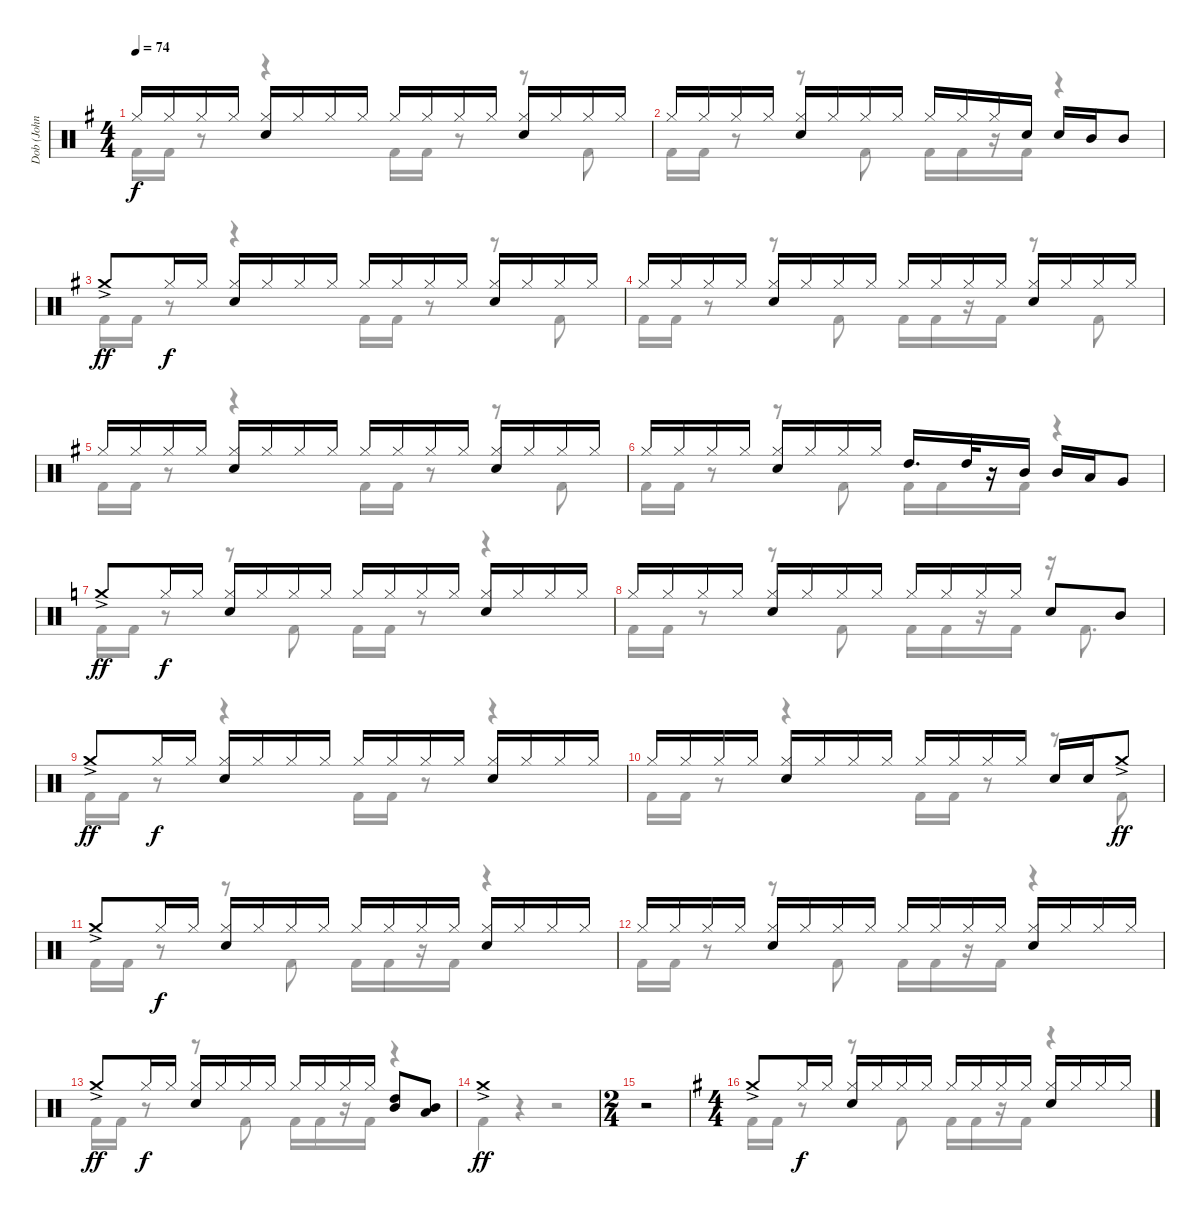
\track ("Dob (John O'Reilly)" "Dob (John ") {instrument percussion}
\staff {score}
\articulation defaults
\voice
\ts (4 4)
\tempo 74
\clef neutral
\ks g "Hi-Hat (closed)".16{dy f} "Hi-Hat (closed)".16 "Hi-Hat (closed)".16 "Hi-Hat (closed)".16
("Hi-Hat (closed)" "Electric Snare (hit)").16 "Hi-Hat (closed)".16 "Hi-Hat (closed)".16 "Hi-Hat (closed)".16 "Hi-Hat (closed)".16 "Hi-Hat (closed)".16 "Hi-Hat (closed)".16 "Hi-Hat (closed)".16 ("Hi-Hat (closed)" "Electric Snare (hit)").16 "Hi-Hat (closed)".16 "Hi-Hat (closed)".16 "Hi-Hat (closed)".16 |
"Hi-Hat (closed)".16 "Hi-Hat (closed)".16 "Hi-Hat (closed)".16 "Hi-Hat (closed)".16 ("Hi-Hat (closed)" "Electric Snare (hit)").16 "Hi-Hat (closed)".16 "Hi-Hat (closed)".16 "Hi-Hat (closed)".16 "Hi-Hat (closed)".16 "Hi-Hat (closed)".16 "Hi-Hat (closed)".16 "Electric Snare (hit)".16 "Electric Snare (hit)".16 "Mid Tom (hit)".16 "Mid Tom (hit)".8 |
"Crash medium (hit)"{ac}.8{dy ff} "Hi-Hat (closed)".16{dy f} "Hi-Hat (closed)".16 ("Hi-Hat (closed)" "Electric Snare (hit)").16 "Hi-Hat (closed)".16 "Hi-Hat (closed)".16 "Hi-Hat (closed)".16 "Hi-Hat (closed)".16 "Hi-Hat (closed)".16 "Hi-Hat (closed)".16 "Hi-Hat (closed)".16 ("Hi-Hat (closed)" "Electric Snare (hit)").16 "Hi-Hat (closed)".16 "Hi-Hat (closed)".16 "Hi-Hat (closed)".16 |
"Hi-Hat (closed)".16 "Hi-Hat (closed)".16 "Hi-Hat (closed)".16 "Hi-Hat (closed)".16 ("Hi-Hat (closed)" "Electric Snare (hit)").16 "Hi-Hat (closed)".16 "Hi-Hat (closed)".16 "Hi-Hat (closed)".16 "Hi-Hat (closed)".16 "Hi-Hat (closed)".16 "Hi-Hat (closed)".16 "Hi-Hat (closed)".16 ("Hi-Hat (closed)" "Electric Snare (hit)").16 "Hi-Hat (closed)".16 "Hi-Hat (closed)".16 "Hi-Hat (closed)".16 |
"Hi-Hat (closed)".16 "Hi-Hat (closed)".16 "Hi-Hat (closed)".16 "Hi-Hat (closed)".16 ("Hi-Hat (closed)" "Electric Snare (hit)").16 "Hi-Hat (closed)".16 "Hi-Hat (closed)".16 "Hi-Hat (closed)".16 "Hi-Hat (closed)".16 "Hi-Hat (closed)".16 "Hi-Hat (closed)".16 "Hi-Hat (closed)".16 ("Hi-Hat (closed)" "Electric Snare (hit)").16 "Hi-Hat (closed)".16 "Hi-Hat (closed)".16 "Hi-Hat (closed)".16 |
"Hi-Hat (closed)".16 "Hi-Hat (closed)".16 "Hi-Hat (closed)".16 "Hi-Hat (closed)".16 ("Hi-Hat (closed)" "Electric Snare (hit)").16 "Hi-Hat (closed)".16 "Hi-Hat (closed)".16 "Hi-Hat (closed)".16 "High Tom (hit)".16{d} "High Tom (hit)".32 r.16 "Mid Tom (hit)".16 "Mid Tom (hit)".16 "Low Tom (hit)".16 "Very Low Tom (hit)".8 |
\ks c "Crash medium (hit)"{ac}.8{dy ff} "Hi-Hat (closed)".16{dy f} "Hi-Hat (closed)".16
("Hi-Hat (closed)" "Electric Snare (hit)").16 "Hi-Hat (closed)".16 "Hi-Hat (closed)".16 "Hi-Hat (closed)".16 "Hi-Hat (closed)".16 "Hi-Hat (closed)".16 "Hi-Hat (closed)".16 "Hi-Hat (closed)".16 ("Hi-Hat (closed)" "Electric Snare (hit)").16 "Hi-Hat (closed)".16 "Hi-Hat (closed)".16 "Hi-Hat (closed)".16 |
"Hi-Hat (closed)".16 "Hi-Hat (closed)".16 "Hi-Hat (closed)".16 "Hi-Hat (closed)".16 ("Hi-Hat (closed)" "Electric Snare (hit)").16 "Hi-Hat (closed)".16 "Hi-Hat (closed)".16 "Hi-Hat (closed)".16 "Hi-Hat (closed)".16 "Hi-Hat (closed)".16 "Hi-Hat (closed)".16 "Hi-Hat (closed)".16 "Electric Snare (hit)".8 "Mid Tom (hit)".8 |
"Crash medium (hit)"{ac}.8{dy ff} "Hi-Hat (closed)".16{dy f} "Hi-Hat (closed)".16 ("Hi-Hat (closed)" "Electric Snare (hit)").16 "Hi-Hat (closed)".16 "Hi-Hat (closed)".16 "Hi-Hat (closed)".16 "Hi-Hat (closed)".16 "Hi-Hat (closed)".16 "Hi-Hat (closed)".16 "Hi-Hat (closed)".16 ("Hi-Hat (closed)" "Electric Snare (hit)").16 "Hi-Hat (closed)".16 "Hi-Hat (closed)".16 "Hi-Hat (closed)".16 |
"Hi-Hat (closed)".16 "Hi-Hat (closed)".16 "Hi-Hat (closed)".16 "Hi-Hat (closed)".16 ("Hi-Hat (closed)" "Electric Snare (hit)").16 "Hi-Hat (closed)".16 "Hi-Hat (closed)".16 "Hi-Hat (closed)".16 "Hi-Hat (closed)".16 "Hi-Hat (closed)".16 "Hi-Hat (closed)".16 "Hi-Hat (closed)".16 "Electric Snare (hit)".16 "Electric Snare (hit)".16 "Crash medium (hit)"{ac}.8{dy ff} |
"Crash medium (hit)"{ac}.8 "Hi-Hat (closed)".16{dy f} "Hi-Hat (closed)".16 ("Hi-Hat (closed)" "Electric Snare (hit)").16 "Hi-Hat (closed)".16 "Hi-Hat (closed)".16 "Hi-Hat (closed)".16 "Hi-Hat (closed)".16 "Hi-Hat (closed)".16 "Hi-Hat (closed)".16 "Hi-Hat (closed)".16 ("Hi-Hat (closed)" "Electric Snare (hit)").16 "Hi-Hat (closed)".16 "Hi-Hat (closed)".16 "Hi-Hat (closed)".16 |
"Hi-Hat (closed)".16 "Hi-Hat (closed)".16 "Hi-Hat (closed)".16 "Hi-Hat (closed)".16 ("Hi-Hat (closed)" "Electric Snare (hit)").16 "Hi-Hat (closed)".16 "Hi-Hat (closed)".16 "Hi-Hat (closed)".16 "Hi-Hat (closed)".16 "Hi-Hat (closed)".16 "Hi-Hat (closed)".16 "Hi-Hat (closed)".16 ("Hi-Hat (closed)" "Electric Snare (hit)").16 "Hi-Hat (closed)".16 "Hi-Hat (closed)".16 "Hi-Hat (closed)".16 |
"Crash medium (hit)"{ac}.8{dy ff} "Hi-Hat (closed)".16{dy f} "Hi-Hat (closed)".16 ("Hi-Hat (closed)" "Electric Snare (hit)").16 "Hi-Hat (closed)".16 "Hi-Hat (closed)".16 "Hi-Hat (closed)".16 "Hi-Hat (closed)".16 "Hi-Hat (closed)".16 "Hi-Hat (closed)".16 "Hi-Hat (closed)".16 ("High Tom (hit)" "Mid Tom (hit)").8 ("Mid Tom (hit)" "Low Tom (hit)").8 |
"Crash medium (hit)"{ac}.1{dy ff} |
\ts (2 4)
r.2 |
\ts (4 4)
\ks g "Crash medium (hit)"{ac}.8 "Hi-Hat (closed)".16{dy f} "Hi-Hat (closed)".16
("Hi-Hat (closed)" "Electric Snare (hit)").16 "Hi-Hat (closed)".16 "Hi-Hat (closed)".16 "Hi-Hat (closed)".16 "Hi-Hat (closed)".16 "Hi-Hat (closed)".16 "Hi-Hat (closed)".16 "Hi-Hat (closed)".16 ("Hi-Hat (closed)" "Electric Snare (hit)").16 "Hi-Hat (closed)".16 "Hi-Hat (closed)".16 "Hi-Hat (closed)".16
\voice
\clef neutral
\ottava regular
\simile none
\ks g "Kick (hit) 2".16{dy f} "Kick (hit) 2".16
r.8 r.4 "Kick (hit) 2".16 "Kick (hit) 2".16 r.8 r.8 "Kick (hit) 2".8 |
"Kick (hit) 2".16 "Kick (hit) 2".16 r.8 r.8 "Kick (hit) 2".8 "Kick (hit) 2".16 "Kick (hit) 2".16 r.16 "Kick (hit) 2".16 r.4 |
"Kick (hit) 2".16 "Kick (hit) 2".16 r.8 r.4 "Kick (hit) 2".16 "Kick (hit) 2".16 r.8 r.8 "Kick (hit) 2".8 |
"Kick (hit) 2".16 "Kick (hit) 2".16 r.8 r.8 "Kick (hit) 2".8 "Kick (hit) 2".16 "Kick (hit) 2".16 r.16 "Kick (hit) 2".16 r.8 "Kick (hit) 2".8 |
"Kick (hit) 2".16 "Kick (hit) 2".16 r.8 r.4 "Kick (hit) 2".16 "Kick (hit) 2".16 r.8 r.8 "Kick (hit) 2".8 |
"Kick (hit) 2".16 "Kick (hit) 2".16 r.8 r.8 "Kick (hit) 2".8 "Kick (hit) 2".16 "Kick (hit) 2".16 r.16 "Kick (hit) 2".16 r.4 |
\ks c "Kick (hit) 2".16 "Kick (hit) 2".16
r.8 r.8 "Kick (hit) 2".8 "Kick (hit) 2".16 "Kick (hit) 2".16 r.8 r.4 |
"Kick (hit) 2".16 "Kick (hit) 2".16 r.8 r.8 "Kick (hit) 2".8 "Kick (hit) 2".16 "Kick (hit) 2".16 r.16 "Kick (hit) 2".16 r.16 "Kick (hit) 2".8{d} |
"Kick (hit) 2".16 "Kick (hit) 2".16 r.8 r.4 "Kick (hit) 2".16 "Kick (hit) 2".16 r.8 r.4 |
"Kick (hit) 2".16 "Kick (hit) 2".16 r.8 r.4 "Kick (hit) 2".16 "Kick (hit) 2".16 r.8 r.8 "Kick (hit) 2".8 |
"Kick (hit) 2".16 "Kick (hit) 2".16 r.8 r.8 "Kick (hit) 2".8 "Kick (hit) 2".16 "Kick (hit) 2".16 r.16 "Kick (hit) 2".16 r.4 |
"Kick (hit) 2".16 "Kick (hit) 2".16 r.8 r.8 "Kick (hit) 2".8 "Kick (hit) 2".16 "Kick (hit) 2".16 r.16 "Kick (hit) 2".16 r.4 |
"Kick (hit) 2".16 "Kick (hit) 2".16 r.8 r.8 "Kick (hit) 2".8 "Kick (hit) 2".16 "Kick (hit) 2".16 r.16 "Kick (hit) 2".16 r.4 |
"Kick (hit) 2".4 r.4 r.2 |
r.2 |
\ks g "Kick (hit) 2".16 "Kick (hit) 2".16
r.8 r.8 "Kick (hit) 2".8 "Kick (hit) 2".16 "Kick (hit) 2".16 r.16 "Kick (hit) 2".16 r.4
